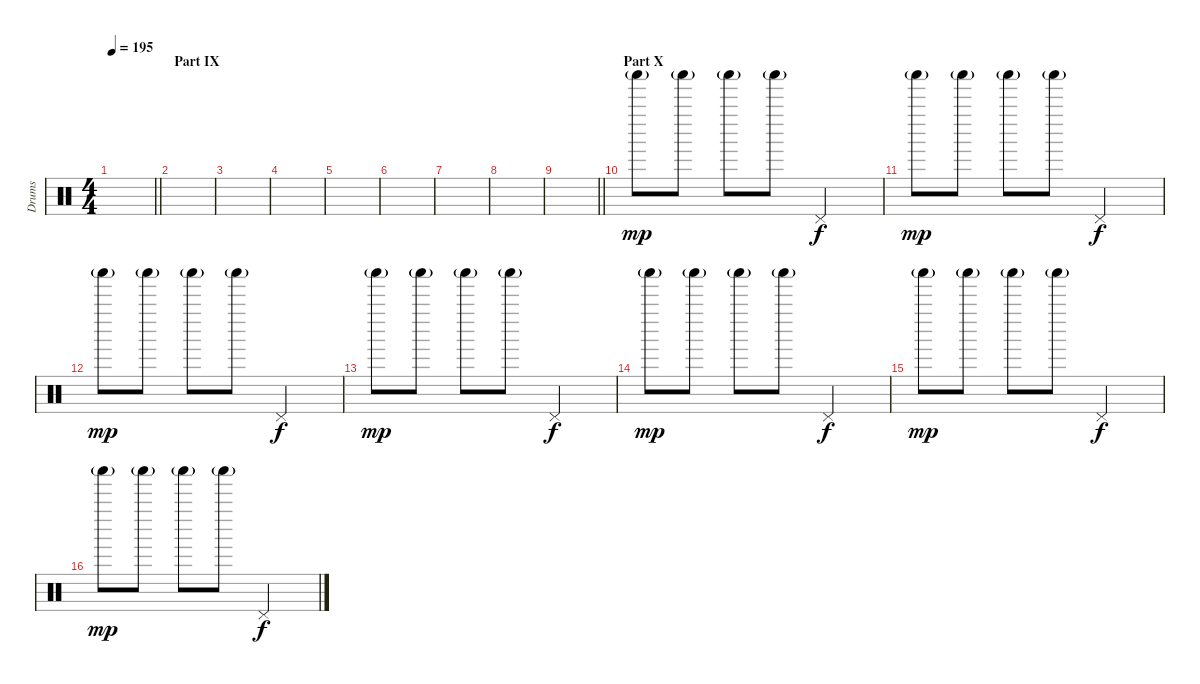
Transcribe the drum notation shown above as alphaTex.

\track ("Drums" "Drums") {instrument percussion}
\staff {score}
\articulation defaults
\ts (4 4)
\tempo 195
\clef neutral
\barLineRight lightlight
\ks c
|
\section ("" "Part IX")
|
|
|
|
|
|
|
\barLineRight lightlight
|
\section ("" "Part X")
"Shaker (hit)"{g}.8{dy mp} "Shaker (hit)"{g}.8 "Shaker (hit)"{g}.8 "Shaker (hit)"{g}.8 "Pedal Hi-Hat (hit)".2{dy f} |
"Shaker (hit)"{g}.8{dy mp} "Shaker (hit)"{g}.8 "Shaker (hit)"{g}.8 "Shaker (hit)"{g}.8 "Pedal Hi-Hat (hit)".2{dy f} |
"Shaker (hit)"{g}.8{dy mp} "Shaker (hit)"{g}.8 "Shaker (hit)"{g}.8 "Shaker (hit)"{g}.8 "Pedal Hi-Hat (hit)".2{dy f} |
"Shaker (hit)"{g}.8{dy mp} "Shaker (hit)"{g}.8 "Shaker (hit)"{g}.8 "Shaker (hit)"{g}.8 "Pedal Hi-Hat (hit)".2{dy f} |
"Shaker (hit)"{g}.8{dy mp} "Shaker (hit)"{g}.8 "Shaker (hit)"{g}.8 "Shaker (hit)"{g}.8 "Pedal Hi-Hat (hit)".2{dy f} |
"Shaker (hit)"{g}.8{dy mp} "Shaker (hit)"{g}.8 "Shaker (hit)"{g}.8 "Shaker (hit)"{g}.8 "Pedal Hi-Hat (hit)".2{dy f} |
"Shaker (hit)"{g}.8{dy mp} "Shaker (hit)"{g}.8 "Shaker (hit)"{g}.8 "Shaker (hit)"{g}.8 "Pedal Hi-Hat (hit)".2{dy f}
